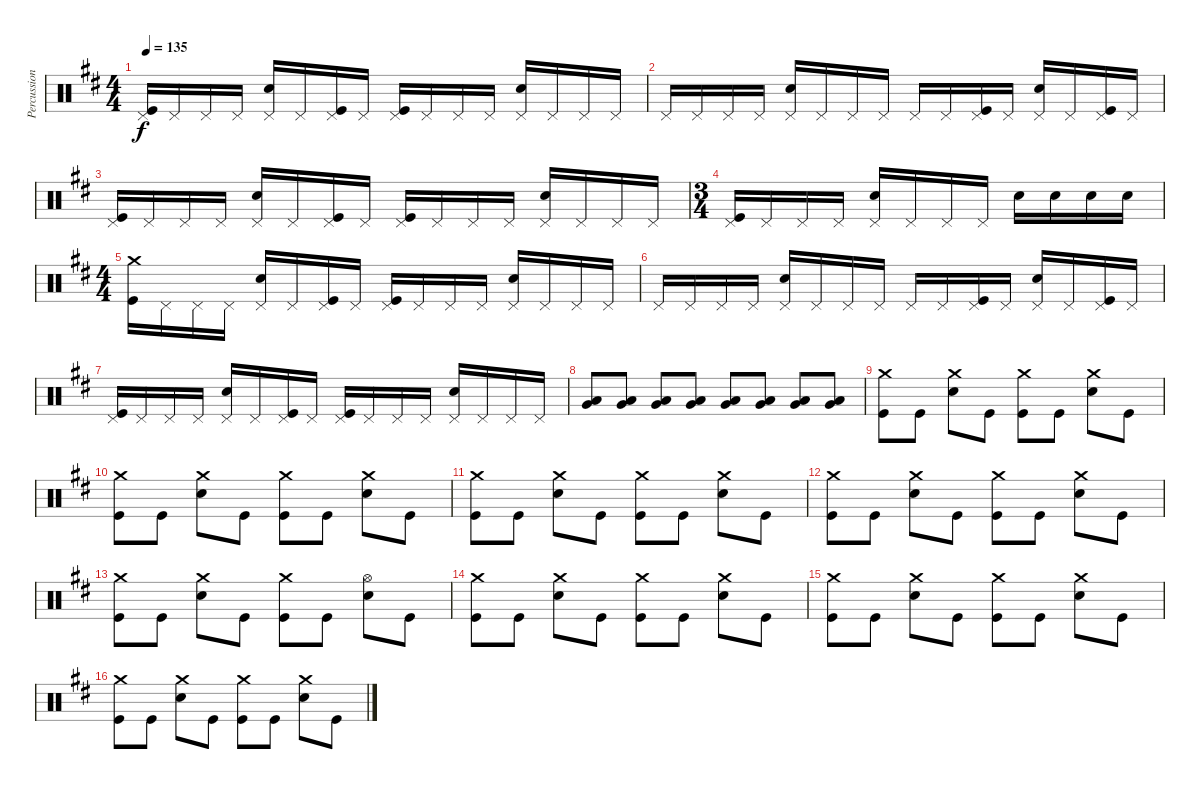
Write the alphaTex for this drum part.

\track ("Percussion" "Percussion") {instrument percussion}
\staff {score}
\articulation defaults
\ts (4 4)
\tempo 135
\clef neutral
\ks d
("Pedal Hi-Hat (hit)" "Kick (hit)").16{dy f} "Pedal Hi-Hat (hit)".16 "Pedal Hi-Hat (hit)".16 "Pedal Hi-Hat (hit)".16 ("Pedal Hi-Hat (hit)" "Electric Snare (hit)").16 "Pedal Hi-Hat (hit)".16 ("Pedal Hi-Hat (hit)" "Kick (hit)").16 "Pedal Hi-Hat (hit)".16 ("Pedal Hi-Hat (hit)" "Kick (hit)").16 "Pedal Hi-Hat (hit)".16 "Pedal Hi-Hat (hit)".16 "Pedal Hi-Hat (hit)".16 ("Pedal Hi-Hat (hit)" "Electric Snare (hit)").16 "Pedal Hi-Hat (hit)".16 "Pedal Hi-Hat (hit)".16 "Pedal Hi-Hat (hit)".16 |
"Pedal Hi-Hat (hit)".16 "Pedal Hi-Hat (hit)".16 "Pedal Hi-Hat (hit)".16 "Pedal Hi-Hat (hit)".16 ("Pedal Hi-Hat (hit)" "Electric Snare (hit)").16 "Pedal Hi-Hat (hit)".16 "Pedal Hi-Hat (hit)".16 "Pedal Hi-Hat (hit)".16 "Pedal Hi-Hat (hit)".16 "Pedal Hi-Hat (hit)".16 ("Pedal Hi-Hat (hit)" "Kick (hit)").16 "Pedal Hi-Hat (hit)".16 ("Pedal Hi-Hat (hit)" "Electric Snare (hit)").16 "Pedal Hi-Hat (hit)".16 ("Pedal Hi-Hat (hit)" "Kick (hit)").16 "Pedal Hi-Hat (hit)".16 |
("Pedal Hi-Hat (hit)" "Kick (hit)").16 "Pedal Hi-Hat (hit)".16 "Pedal Hi-Hat (hit)".16 "Pedal Hi-Hat (hit)".16 ("Pedal Hi-Hat (hit)" "Electric Snare (hit)").16 "Pedal Hi-Hat (hit)".16 ("Pedal Hi-Hat (hit)" "Kick (hit)").16 "Pedal Hi-Hat (hit)".16 ("Pedal Hi-Hat (hit)" "Kick (hit)").16 "Pedal Hi-Hat (hit)".16 "Pedal Hi-Hat (hit)".16 "Pedal Hi-Hat (hit)".16 ("Pedal Hi-Hat (hit)" "Electric Snare (hit)").16 "Pedal Hi-Hat (hit)".16 "Pedal Hi-Hat (hit)".16 "Pedal Hi-Hat (hit)".16 |
\ts (3 4)
("Pedal Hi-Hat (hit)" "Kick (hit)").16 "Pedal Hi-Hat (hit)".16 "Pedal Hi-Hat (hit)".16 "Pedal Hi-Hat (hit)".16 ("Pedal Hi-Hat (hit)" "Electric Snare (hit)").16 "Pedal Hi-Hat (hit)".16 "Pedal Hi-Hat (hit)".16 "Pedal Hi-Hat (hit)".16 "Electric Snare (hit)".16 "Electric Snare (hit)".16 "Electric Snare (hit)".16 "Electric Snare (hit)".16 |
\ts (4 4)
("Crash medium (hit)" "Kick (hit)").16 "Pedal Hi-Hat (hit)".16 "Pedal Hi-Hat (hit)".16 "Pedal Hi-Hat (hit)".16 ("Pedal Hi-Hat (hit)" "Electric Snare (hit)").16 "Pedal Hi-Hat (hit)".16 ("Pedal Hi-Hat (hit)" "Kick (hit)").16 "Pedal Hi-Hat (hit)".16 ("Pedal Hi-Hat (hit)" "Kick (hit)").16 "Pedal Hi-Hat (hit)".16 "Pedal Hi-Hat (hit)".16 "Pedal Hi-Hat (hit)".16 ("Pedal Hi-Hat (hit)" "Electric Snare (hit)").16 "Pedal Hi-Hat (hit)".16 "Pedal Hi-Hat (hit)".16 "Pedal Hi-Hat (hit)".16 |
"Pedal Hi-Hat (hit)".16 "Pedal Hi-Hat (hit)".16 "Pedal Hi-Hat (hit)".16 "Pedal Hi-Hat (hit)".16 ("Pedal Hi-Hat (hit)" "Electric Snare (hit)").16 "Pedal Hi-Hat (hit)".16 "Pedal Hi-Hat (hit)".16 "Pedal Hi-Hat (hit)".16 "Pedal Hi-Hat (hit)".16 "Pedal Hi-Hat (hit)".16 ("Pedal Hi-Hat (hit)" "Kick (hit)").16 "Pedal Hi-Hat (hit)".16 ("Pedal Hi-Hat (hit)" "Electric Snare (hit)").16 "Pedal Hi-Hat (hit)".16 ("Pedal Hi-Hat (hit)" "Kick (hit)").16 "Pedal Hi-Hat (hit)".16 |
("Pedal Hi-Hat (hit)" "Kick (hit)").16 "Pedal Hi-Hat (hit)".16 "Pedal Hi-Hat (hit)".16 "Pedal Hi-Hat (hit)".16 ("Pedal Hi-Hat (hit)" "Electric Snare (hit)").16 "Pedal Hi-Hat (hit)".16 ("Pedal Hi-Hat (hit)" "Kick (hit)").16 "Pedal Hi-Hat (hit)".16 ("Pedal Hi-Hat (hit)" "Kick (hit)").16 "Pedal Hi-Hat (hit)".16 "Pedal Hi-Hat (hit)".16 "Pedal Hi-Hat (hit)".16 ("Pedal Hi-Hat (hit)" "Electric Snare (hit)").16 "Pedal Hi-Hat (hit)".16 "Pedal Hi-Hat (hit)".16 "Pedal Hi-Hat (hit)".16 |
("Low Floor Tom (hit)" "Very Low Tom (hit)").8 ("Low Floor Tom (hit)" "Very Low Tom (hit)").8 ("Low Floor Tom (hit)" "Very Low Tom (hit)").8 ("Low Floor Tom (hit)" "Very Low Tom (hit)").8 ("Low Floor Tom (hit)" "Very Low Tom (hit)").8 ("Low Floor Tom (hit)" "Very Low Tom (hit)").8 ("Low Floor Tom (hit)" "Very Low Tom (hit)").8 ("Low Floor Tom (hit)" "Very Low Tom (hit)").8 |
("Crash medium (hit)" "Kick (hit)").8 "Kick (hit)".8 ("Crash medium (hit)" "Electric Snare (hit)").8 "Kick (hit)".8 ("Crash medium (hit)" "Kick (hit)").8 "Kick (hit)".8 ("Crash medium (hit)" "Electric Snare (hit)").8 "Kick (hit)".8 |
("Crash medium (hit)" "Kick (hit)").8 "Kick (hit)".8 ("Crash medium (hit)" "Electric Snare (hit)").8 "Kick (hit)".8 ("Crash medium (hit)" "Kick (hit)").8 "Kick (hit)".8 ("Crash medium (hit)" "Electric Snare (hit)").8 "Kick (hit)".8 |
("Crash medium (hit)" "Kick (hit)").8 "Kick (hit)".8 ("Crash medium (hit)" "Electric Snare (hit)").8 "Kick (hit)".8 ("Crash medium (hit)" "Kick (hit)").8 "Kick (hit)".8 ("Crash medium (hit)" "Electric Snare (hit)").8 "Kick (hit)".8 |
("Crash medium (hit)" "Kick (hit)").8 "Kick (hit)".8 ("Crash medium (hit)" "Electric Snare (hit)").8 "Kick (hit)".8 ("Crash medium (hit)" "Kick (hit)").8 "Kick (hit)".8 ("Crash medium (hit)" "Electric Snare (hit)").8 "Kick (hit)".8 |
("Crash medium (hit)" "Kick (hit)").8 "Kick (hit)".8 ("Crash medium (hit)" "Electric Snare (hit)").8 "Kick (hit)".8 ("Crash medium (hit)" "Kick (hit)").8 "Kick (hit)".8 ("Hi-Hat (open)" "Electric Snare (hit)").8 "Kick (hit)".8 |
("Crash medium (hit)" "Kick (hit)").8 "Kick (hit)".8 ("Crash medium (hit)" "Electric Snare (hit)").8 "Kick (hit)".8 ("Crash medium (hit)" "Kick (hit)").8 "Kick (hit)".8 ("Crash medium (hit)" "Electric Snare (hit)").8 "Kick (hit)".8 |
("Crash medium (hit)" "Kick (hit)").8 "Kick (hit)".8 ("Crash medium (hit)" "Electric Snare (hit)").8 "Kick (hit)".8 ("Crash medium (hit)" "Kick (hit)").8 "Kick (hit)".8 ("Crash medium (hit)" "Electric Snare (hit)").8 "Kick (hit)".8 |
("Crash medium (hit)" "Kick (hit)").8 "Kick (hit)".8 ("Crash medium (hit)" "Electric Snare (hit)").8 "Kick (hit)".8 ("Crash medium (hit)" "Kick (hit)").8 "Kick (hit)".8 ("Crash medium (hit)" "Electric Snare (hit)").8 "Kick (hit)".8
